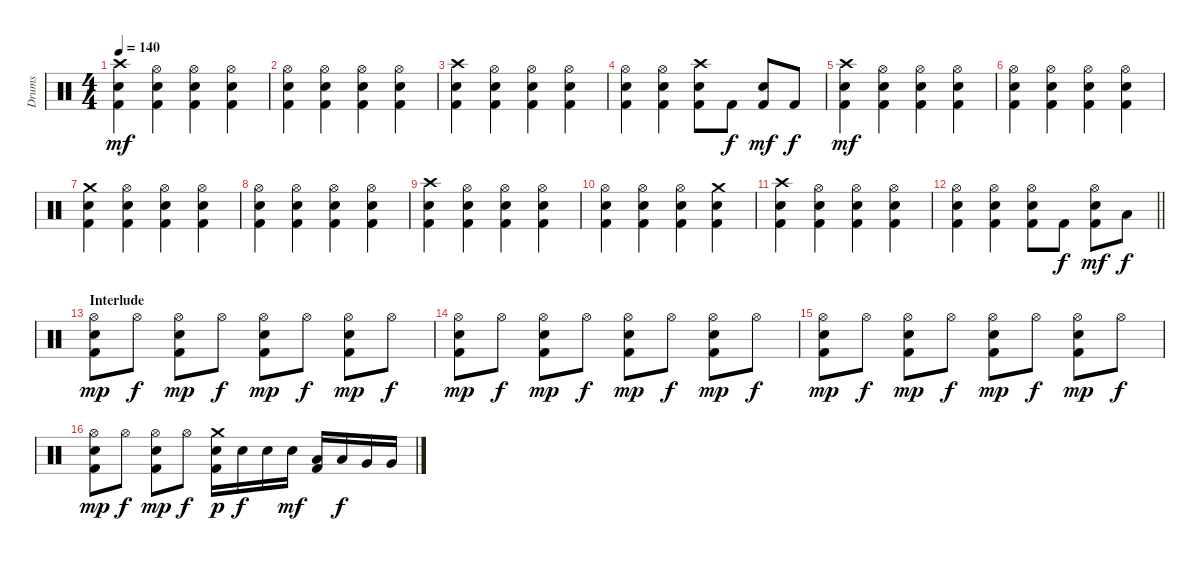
\track ("Drums" "Drums") {instrument percussion}
\staff {score}
\articulation defaults
\ts (4 4)
\tempo 140
\clef neutral
\ks c
("Crash high (hit)" "Electric Snare (hit)" "Kick (hit) 2").4{dy mf} ("Hi-Hat (open)" "Electric Snare (hit)" "Kick (hit) 2").4 ("Hi-Hat (open)" "Electric Snare (hit)" "Kick (hit) 2").4 ("Hi-Hat (open)" "Electric Snare (hit)" "Kick (hit) 2").4 |
("Hi-Hat (open)" "Electric Snare (hit)" "Kick (hit) 2").4 ("Hi-Hat (open)" "Electric Snare (hit)" "Kick (hit) 2").4 ("Hi-Hat (open)" "Electric Snare (hit)" "Kick (hit) 2").4 ("Hi-Hat (open)" "Electric Snare (hit)" "Kick (hit) 2").4 |
("Crash high (hit)" "Electric Snare (hit)" "Kick (hit) 2").4 ("Hi-Hat (open)" "Electric Snare (hit)" "Kick (hit) 2").4 ("Hi-Hat (open)" "Electric Snare (hit)" "Kick (hit) 2").4 ("Hi-Hat (open)" "Electric Snare (hit)" "Kick (hit) 2").4 |
("Hi-Hat (open)" "Electric Snare (hit)" "Kick (hit) 2").4 ("Hi-Hat (open)" "Electric Snare (hit)" "Kick (hit) 2").4 ("Crash high (hit)" "Electric Snare (hit)" "Kick (hit) 2").8 "Kick (hit) 2".8{dy f} ("Electric Snare (hit)" "Kick (hit) 2").8{dy mf} "Kick (hit) 2".8{dy f} |
("Crash high (hit)" "Electric Snare (hit)" "Kick (hit) 2").4{dy mf} ("Hi-Hat (open)" "Electric Snare (hit)" "Kick (hit) 2").4 ("Hi-Hat (open)" "Electric Snare (hit)" "Kick (hit) 2").4 ("Hi-Hat (open)" "Electric Snare (hit)" "Kick (hit) 2").4 |
("Hi-Hat (open)" "Electric Snare (hit)" "Kick (hit) 2").4 ("Hi-Hat (open)" "Electric Snare (hit)" "Kick (hit) 2").4 ("Hi-Hat (open)" "Electric Snare (hit)" "Kick (hit) 2").4 ("Hi-Hat (open)" "Electric Snare (hit)" "Kick (hit) 2").4 |
("Crash medium (hit)" "Electric Snare (hit)" "Kick (hit) 2").4 ("Hi-Hat (open)" "Electric Snare (hit)" "Kick (hit) 2").4 ("Hi-Hat (open)" "Electric Snare (hit)" "Kick (hit) 2").4 ("Hi-Hat (open)" "Electric Snare (hit)" "Kick (hit) 2").4 |
("Hi-Hat (open)" "Electric Snare (hit)" "Kick (hit) 2").4 ("Hi-Hat (open)" "Electric Snare (hit)" "Kick (hit) 2").4 ("Hi-Hat (open)" "Electric Snare (hit)" "Kick (hit) 2").4 ("Hi-Hat (open)" "Electric Snare (hit)" "Kick (hit) 2").4 |
("Crash high (hit)" "Electric Snare (hit)" "Kick (hit) 2").4 ("Hi-Hat (open)" "Electric Snare (hit)" "Kick (hit) 2").4 ("Hi-Hat (open)" "Electric Snare (hit)" "Kick (hit) 2").4 ("Hi-Hat (open)" "Electric Snare (hit)" "Kick (hit) 2").4 |
("Hi-Hat (open)" "Electric Snare (hit)" "Kick (hit) 2").4 ("Hi-Hat (open)" "Electric Snare (hit)" "Kick (hit) 2").4 ("Hi-Hat (open)" "Electric Snare (hit)" "Kick (hit) 2").4 ("Crash medium (hit)" "Electric Snare (hit)" "Kick (hit) 2").4 |
("Crash high (hit)" "Electric Snare (hit)" "Kick (hit) 2").4 ("Hi-Hat (open)" "Electric Snare (hit)" "Kick (hit) 2").4 ("Hi-Hat (open)" "Electric Snare (hit)" "Kick (hit) 2").4 ("Hi-Hat (open)" "Electric Snare (hit)" "Kick (hit) 2").4 |
\barLineRight lightlight
("Hi-Hat (open)" "Electric Snare (hit)" "Kick (hit) 2").4 ("Hi-Hat (open)" "Electric Snare (hit)" "Kick (hit) 2").4 ("Hi-Hat (open)" "Electric Snare (hit)" "Kick (hit) 2").8 "Kick (hit) 2".8{dy f} ("Hi-Hat (open)" "Electric Snare (hit)" "Kick (hit) 2").8{dy mf} "Low Floor Tom (hit)".8{dy f} |
\section ("" "Interlude")
("Hi-Hat (open)" "Electric Snare (hit)" "Kick (hit) 2").8{dy mp} "Hi-Hat (open)".8{dy f} ("Hi-Hat (open)" "Electric Snare (hit)" "Kick (hit) 2").8{dy mp} "Hi-Hat (open)".8{dy f} ("Hi-Hat (open)" "Electric Snare (hit)" "Kick (hit) 2").8{dy mp} "Hi-Hat (open)".8{dy f} ("Hi-Hat (open)" "Electric Snare (hit)" "Kick (hit) 2").8{dy mp} "Hi-Hat (open)".8{dy f} |
("Hi-Hat (open)" "Electric Snare (hit)" "Kick (hit) 2").8{dy mp} "Hi-Hat (open)".8{dy f} ("Hi-Hat (open)" "Electric Snare (hit)" "Kick (hit) 2").8{dy mp} "Hi-Hat (open)".8{dy f} ("Hi-Hat (open)" "Electric Snare (hit)" "Kick (hit) 2").8{dy mp} "Hi-Hat (open)".8{dy f} ("Hi-Hat (open)" "Electric Snare (hit)" "Kick (hit) 2").8{dy mp} "Hi-Hat (open)".8{dy f} |
("Hi-Hat (open)" "Electric Snare (hit)" "Kick (hit) 2").8{dy mp} "Hi-Hat (open)".8{dy f} ("Hi-Hat (open)" "Electric Snare (hit)" "Kick (hit) 2").8{dy mp} "Hi-Hat (open)".8{dy f} ("Hi-Hat (open)" "Electric Snare (hit)" "Kick (hit) 2").8{dy mp} "Hi-Hat (open)".8{dy f} ("Hi-Hat (open)" "Electric Snare (hit)" "Kick (hit) 2").8{dy mp} "Hi-Hat (open)".8{dy f} |
("Hi-Hat (open)" "Electric Snare (hit)" "Kick (hit) 2").8{dy mp} "Hi-Hat (open)".8{dy f} ("Hi-Hat (open)" "Electric Snare (hit)" "Kick (hit) 2").8{dy mp} "Hi-Hat (open)".8{dy f} ("Crash medium (hit)" "Electric Snare (hit)" "Kick (hit) 2").16{dy p} "Electric Snare (hit)".16{dy f} "Electric Snare (hit)".16 "Electric Snare (hit)".16{dy mf} ("Low Tom (hit)" "Kick (hit) 2").16 "Low Tom (hit)".16{dy f} "Very Low Tom (hit)".16 "Very Low Tom (hit)".16
